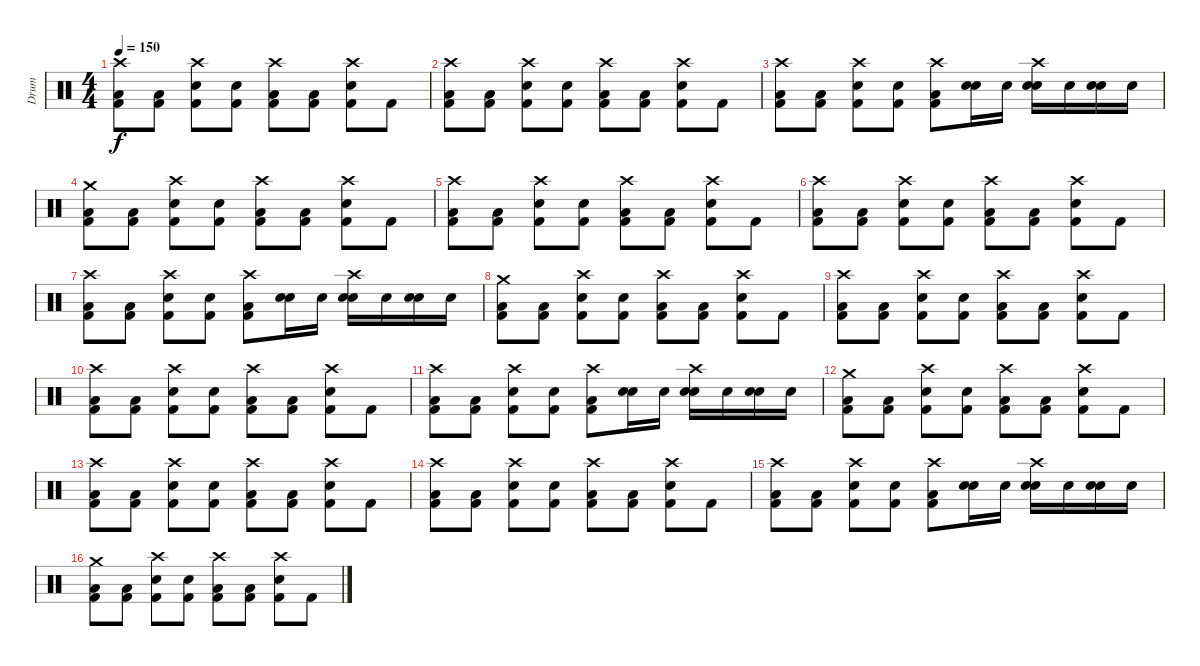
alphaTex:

\track ("Drum" "Drum") {instrument percussion}
\staff {score}
\articulation defaults
\ts (4 4)
\tempo 150
\clef neutral
\ks c
("Crash high (hit)" "Low Floor Tom (hit)" "Kick (hit) 2").8{dy f} ("Low Floor Tom (hit)" "Kick (hit) 2").8 ("Crash high (hit)" "Snare (hit) 2" "Kick (hit) 2").8 ("Snare (hit) 2" "Kick (hit) 2").8 ("Crash high (hit)" "Low Floor Tom (hit)" "Kick (hit) 2").8 ("Low Floor Tom (hit)" "Kick (hit) 2").8 ("Crash high (hit)" "Snare (hit) 2" "Kick (hit) 2").8 "Kick (hit) 2".8 |
("Crash high (hit)" "Low Floor Tom (hit)" "Kick (hit) 2").8 ("Low Floor Tom (hit)" "Kick (hit) 2").8 ("Crash high (hit)" "Snare (hit) 2" "Kick (hit) 2").8 ("Snare (hit) 2" "Kick (hit) 2").8 ("Crash high (hit)" "Low Floor Tom (hit)" "Kick (hit) 2").8 ("Low Floor Tom (hit)" "Kick (hit) 2").8 ("Crash high (hit)" "Snare (hit) 2" "Kick (hit) 2").8 "Kick (hit) 2".8 |
("Crash high (hit)" "Low Floor Tom (hit)" "Kick (hit) 2").8 ("Low Floor Tom (hit)" "Kick (hit) 2").8 ("Crash high (hit)" "Snare (hit) 2" "Kick (hit) 2").8 ("Snare (hit) 2" "Kick (hit) 2").8 ("Crash high (hit)" "Low Floor Tom (hit)" "Kick (hit) 2").8 ("Electric Snare (hit)" "Snare (hit) 2").16 "Electric Snare (hit)".16 ("Crash high (hit)" "Electric Snare (hit)" "Snare (hit) 2").16 "Electric Snare (hit)".16 ("Electric Snare (hit)" "Snare (hit) 2").16 "Electric Snare (hit)".16 |
("Crash medium (hit)" "Low Floor Tom (hit)" "Kick (hit) 2").8 ("Low Floor Tom (hit)" "Kick (hit) 2").8 ("Crash high (hit)" "Snare (hit) 2" "Kick (hit) 2").8 ("Snare (hit) 2" "Kick (hit) 2").8 ("Crash high (hit)" "Low Floor Tom (hit)" "Kick (hit) 2").8 ("Low Floor Tom (hit)" "Kick (hit) 2").8 ("Crash high (hit)" "Snare (hit) 2" "Kick (hit) 2").8 "Kick (hit) 2".8 |
("Crash high (hit)" "Low Floor Tom (hit)" "Kick (hit) 2").8 ("Low Floor Tom (hit)" "Kick (hit) 2").8 ("Crash high (hit)" "Snare (hit) 2" "Kick (hit) 2").8 ("Snare (hit) 2" "Kick (hit) 2").8 ("Crash high (hit)" "Low Floor Tom (hit)" "Kick (hit) 2").8 ("Low Floor Tom (hit)" "Kick (hit) 2").8 ("Crash high (hit)" "Snare (hit) 2" "Kick (hit) 2").8 "Kick (hit) 2".8 |
("Crash high (hit)" "Low Floor Tom (hit)" "Kick (hit) 2").8 ("Low Floor Tom (hit)" "Kick (hit) 2").8 ("Crash high (hit)" "Snare (hit) 2" "Kick (hit) 2").8 ("Snare (hit) 2" "Kick (hit) 2").8 ("Crash high (hit)" "Low Floor Tom (hit)" "Kick (hit) 2").8 ("Low Floor Tom (hit)" "Kick (hit) 2").8 ("Crash high (hit)" "Snare (hit) 2" "Kick (hit) 2").8 "Kick (hit) 2".8 |
("Crash high (hit)" "Low Floor Tom (hit)" "Kick (hit) 2").8 ("Low Floor Tom (hit)" "Kick (hit) 2").8 ("Crash high (hit)" "Snare (hit) 2" "Kick (hit) 2").8 ("Snare (hit) 2" "Kick (hit) 2").8 ("Crash high (hit)" "Low Floor Tom (hit)" "Kick (hit) 2").8 ("Electric Snare (hit)" "Snare (hit) 2").16 "Electric Snare (hit)".16 ("Crash high (hit)" "Electric Snare (hit)" "Snare (hit) 2").16 "Electric Snare (hit)".16 ("Electric Snare (hit)" "Snare (hit) 2").16 "Electric Snare (hit)".16 |
("Crash medium (hit)" "Low Floor Tom (hit)" "Kick (hit) 2").8 ("Low Floor Tom (hit)" "Kick (hit) 2").8 ("Crash high (hit)" "Snare (hit) 2" "Kick (hit) 2").8 ("Snare (hit) 2" "Kick (hit) 2").8 ("Crash high (hit)" "Low Floor Tom (hit)" "Kick (hit) 2").8 ("Low Floor Tom (hit)" "Kick (hit) 2").8 ("Crash high (hit)" "Snare (hit) 2" "Kick (hit) 2").8 "Kick (hit) 2".8 |
("Crash high (hit)" "Low Floor Tom (hit)" "Kick (hit) 2").8 ("Low Floor Tom (hit)" "Kick (hit) 2").8 ("Crash high (hit)" "Snare (hit) 2" "Kick (hit) 2").8 ("Snare (hit) 2" "Kick (hit) 2").8 ("Crash high (hit)" "Low Floor Tom (hit)" "Kick (hit) 2").8 ("Low Floor Tom (hit)" "Kick (hit) 2").8 ("Crash high (hit)" "Snare (hit) 2" "Kick (hit) 2").8 "Kick (hit) 2".8 |
("Crash high (hit)" "Low Floor Tom (hit)" "Kick (hit) 2").8 ("Low Floor Tom (hit)" "Kick (hit) 2").8 ("Crash high (hit)" "Snare (hit) 2" "Kick (hit) 2").8 ("Snare (hit) 2" "Kick (hit) 2").8 ("Crash high (hit)" "Low Floor Tom (hit)" "Kick (hit) 2").8 ("Low Floor Tom (hit)" "Kick (hit) 2").8 ("Crash high (hit)" "Snare (hit) 2" "Kick (hit) 2").8 "Kick (hit) 2".8 |
("Crash high (hit)" "Low Floor Tom (hit)" "Kick (hit) 2").8 ("Low Floor Tom (hit)" "Kick (hit) 2").8 ("Crash high (hit)" "Snare (hit) 2" "Kick (hit) 2").8 ("Snare (hit) 2" "Kick (hit) 2").8 ("Crash high (hit)" "Low Floor Tom (hit)" "Kick (hit) 2").8 ("Electric Snare (hit)" "Snare (hit) 2").16 "Electric Snare (hit)".16 ("Crash high (hit)" "Electric Snare (hit)" "Snare (hit) 2").16 "Electric Snare (hit)".16 ("Electric Snare (hit)" "Snare (hit) 2").16 "Electric Snare (hit)".16 |
("Crash medium (hit)" "Low Floor Tom (hit)" "Kick (hit) 2").8 ("Low Floor Tom (hit)" "Kick (hit) 2").8 ("Crash high (hit)" "Snare (hit) 2" "Kick (hit) 2").8 ("Snare (hit) 2" "Kick (hit) 2").8 ("Crash high (hit)" "Low Floor Tom (hit)" "Kick (hit) 2").8 ("Low Floor Tom (hit)" "Kick (hit) 2").8 ("Crash high (hit)" "Snare (hit) 2" "Kick (hit) 2").8 "Kick (hit) 2".8 |
("Crash high (hit)" "Low Floor Tom (hit)" "Kick (hit) 2").8 ("Low Floor Tom (hit)" "Kick (hit) 2").8 ("Crash high (hit)" "Snare (hit) 2" "Kick (hit) 2").8 ("Snare (hit) 2" "Kick (hit) 2").8 ("Crash high (hit)" "Low Floor Tom (hit)" "Kick (hit) 2").8 ("Low Floor Tom (hit)" "Kick (hit) 2").8 ("Crash high (hit)" "Snare (hit) 2" "Kick (hit) 2").8 "Kick (hit) 2".8 |
("Crash high (hit)" "Low Floor Tom (hit)" "Kick (hit) 2").8 ("Low Floor Tom (hit)" "Kick (hit) 2").8 ("Crash high (hit)" "Snare (hit) 2" "Kick (hit) 2").8 ("Snare (hit) 2" "Kick (hit) 2").8 ("Crash high (hit)" "Low Floor Tom (hit)" "Kick (hit) 2").8 ("Low Floor Tom (hit)" "Kick (hit) 2").8 ("Crash high (hit)" "Snare (hit) 2" "Kick (hit) 2").8 "Kick (hit) 2".8 |
("Crash high (hit)" "Low Floor Tom (hit)" "Kick (hit) 2").8 ("Low Floor Tom (hit)" "Kick (hit) 2").8 ("Crash high (hit)" "Snare (hit) 2" "Kick (hit) 2").8 ("Snare (hit) 2" "Kick (hit) 2").8 ("Crash high (hit)" "Low Floor Tom (hit)" "Kick (hit) 2").8 ("Electric Snare (hit)" "Snare (hit) 2").16 "Electric Snare (hit)".16 ("Crash high (hit)" "Electric Snare (hit)" "Snare (hit) 2").16 "Electric Snare (hit)".16 ("Electric Snare (hit)" "Snare (hit) 2").16 "Electric Snare (hit)".16 |
("Crash medium (hit)" "Low Floor Tom (hit)" "Kick (hit) 2").8 ("Low Floor Tom (hit)" "Kick (hit) 2").8 ("Crash high (hit)" "Snare (hit) 2" "Kick (hit) 2").8 ("Snare (hit) 2" "Kick (hit) 2").8 ("Crash high (hit)" "Low Floor Tom (hit)" "Kick (hit) 2").8 ("Low Floor Tom (hit)" "Kick (hit) 2").8 ("Crash high (hit)" "Snare (hit) 2" "Kick (hit) 2").8 "Kick (hit) 2".8
